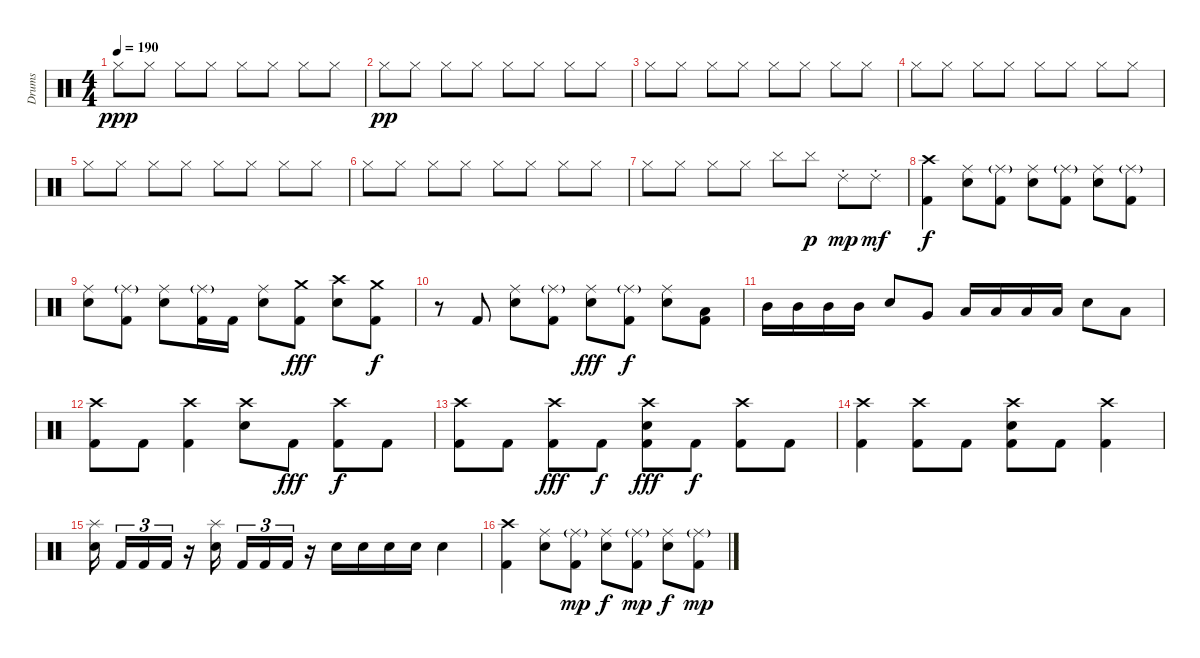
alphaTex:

\track ("Drums" "Drums") {instrument percussion}
\staff {score}
\articulation defaults
\ts (4 4)
\tempo 190
\clef neutral
\ks c "Hi-Hat (closed)".8{dy ppp} "Hi-Hat (closed)".8 "Hi-Hat (closed)".8 "Hi-Hat (closed)".8 "Hi-Hat (closed)".8 "Hi-Hat (closed)".8 "Hi-Hat (closed)".8 "Hi-Hat (closed)".8
|
"Hi-Hat (closed)".8{dy pp} "Hi-Hat (closed)".8 "Hi-Hat (closed)".8 "Hi-Hat (closed)".8 "Hi-Hat (closed)".8 "Hi-Hat (closed)".8 "Hi-Hat (closed)".8 "Hi-Hat (closed)".8 |
"Hi-Hat (closed)".8 "Hi-Hat (closed)".8 "Hi-Hat (closed)".8 "Hi-Hat (closed)".8 "Hi-Hat (closed)".8 "Hi-Hat (closed)".8 "Hi-Hat (closed)".8 "Hi-Hat (closed)".8 |
"Hi-Hat (closed)".8 "Hi-Hat (closed)".8 "Hi-Hat (closed)".8 "Hi-Hat (closed)".8 "Hi-Hat (closed)".8 "Hi-Hat (closed)".8 "Hi-Hat (closed)".8 "Hi-Hat (closed)".8 |
"Hi-Hat (closed)".8 "Hi-Hat (closed)".8 "Hi-Hat (closed)".8 "Hi-Hat (closed)".8 "Hi-Hat (closed)".8 "Hi-Hat (closed)".8 "Hi-Hat (closed)".8 "Hi-Hat (closed)".8 |
"Hi-Hat (closed)".8 "Hi-Hat (closed)".8 "Hi-Hat (closed)".8 "Hi-Hat (closed)".8 "Hi-Hat (closed)".8 "Hi-Hat (closed)".8 "Hi-Hat (closed)".8 "Hi-Hat (closed)".8 |
"Hi-Hat (closed)".8 "Hi-Hat (closed)".8 "Hi-Hat (closed)".8 "Hi-Hat (closed)".8 "Cymbal (hit)".8 "Cymbal (hit)".8{dy p} "Ride (choke) 2".8{dy mp} "Ride (choke) 2".8{dy mf} |
("Crash high (hit)" "Kick (hit) 2").4{dy f} ("Ride (middle)" "Electric Snare (hit)").8 ("Ride (middle)"{g} "Kick (hit) 2").8 ("Ride (middle)" "Electric Snare (hit)").8 ("Ride (middle)"{g} "Kick (hit) 2").8 ("Ride (middle)" "Electric Snare (hit)").8 ("Ride (middle)"{g} "Kick (hit) 2").8 |
("Ride (middle)" "Electric Snare (hit)").8 ("Ride (middle)"{g} "Kick (hit) 2").8 ("Ride (middle)" "Electric Snare (hit)").8 ("Ride (middle)"{g} "Kick (hit) 2").16 "Kick (hit) 2".16 ("Ride (middle)" "Electric Snare (hit)").8 ("Crash medium (hit)" "Kick (hit) 2").8{dy fff} ("Crash high (hit)" "Electric Snare (hit)").8 ("Crash medium (hit)" "Kick (hit) 2").8{dy f} |
r.8 "Kick (hit) 2".8 ("Ride (middle)" "Electric Snare (hit)").8 ("Ride (middle)"{g} "Kick (hit) 2").8 ("Ride (middle)" "Electric Snare (hit)").8{dy fff} ("Ride (middle)"{g} "Kick (hit) 2").8{dy f} ("Ride (middle)" "Electric Snare (hit)").8 ("Low Tom (hit)" "Kick (hit) 2").8 |
"Mid Tom (hit)".16 "Mid Tom (hit)".16 "Mid Tom (hit)".16 "Mid Tom (hit)".16 "Electric Snare (hit)".8 "Very Low Tom (hit)".8 "Low Tom (hit)".16 "Low Tom (hit)".16 "Low Tom (hit)".16 "Low Tom (hit)".16 "Electric Snare (hit)".8 "Low Tom (hit)".8 |
("Crash high (hit)" "Kick (hit) 2").8 "Kick (hit) 2".8 ("Crash high (hit)" "Kick (hit) 2").4 ("Crash high (hit)" "Electric Snare (hit)").8 "Kick (hit) 2".8{dy fff} ("Crash high (hit)" "Kick (hit) 2").8{dy f} "Kick (hit) 2".8 |
("Crash high (hit)" "Kick (hit) 2").8 "Kick (hit) 2".8 ("Crash high (hit)" "Kick (hit) 2").8{dy fff} "Kick (hit) 2".8{dy f} ("Crash high (hit)" "Electric Snare (hit)" "Kick (hit) 2").8{dy fff} "Kick (hit) 2".8{dy f} ("Crash high (hit)" "Kick (hit) 2").8 "Kick (hit) 2".8 |
("Crash high (hit)" "Kick (hit) 2").4 ("Crash high (hit)" "Kick (hit) 2").8 "Kick (hit) 2".8 ("Crash high (hit)" "Electric Snare (hit)" "Kick (hit) 2").8 "Kick (hit) 2".8 ("Crash high (hit)" "Kick (hit) 2").4 |
("Splash (hit)" "Electric Snare (hit)").16{beam splitsecondary} "Kick (hit) 2".16{tu (3 2)} "Kick (hit) 2".16{tu (3 2)} "Kick (hit) 2".16{tu (3 2)} r.16 ("Splash (hit)" "Electric Snare (hit)").16{beam splitsecondary} "Kick (hit) 2".16{tu (3 2)} "Kick (hit) 2".16{tu (3 2)} "Kick (hit) 2".16{tu (3 2)} r.16 "Electric Snare (hit)".16 "Electric Snare (hit)".16 "Electric Snare (hit)".16 "Electric Snare (hit)".16 "Electric Snare (hit)".4 |
("Crash high (hit)" "Kick (hit) 2").4 ("Ride (middle)" "Electric Snare (hit)").8 ("Ride (middle)"{g} "Kick (hit) 2").8{dy mp} ("Ride (middle)" "Electric Snare (hit)").8{dy f} ("Ride (middle)"{g} "Kick (hit) 2").8{dy mp} ("Ride (middle)" "Electric Snare (hit)").8{dy f} ("Ride (middle)"{g} "Kick (hit) 2").8{dy mp}
